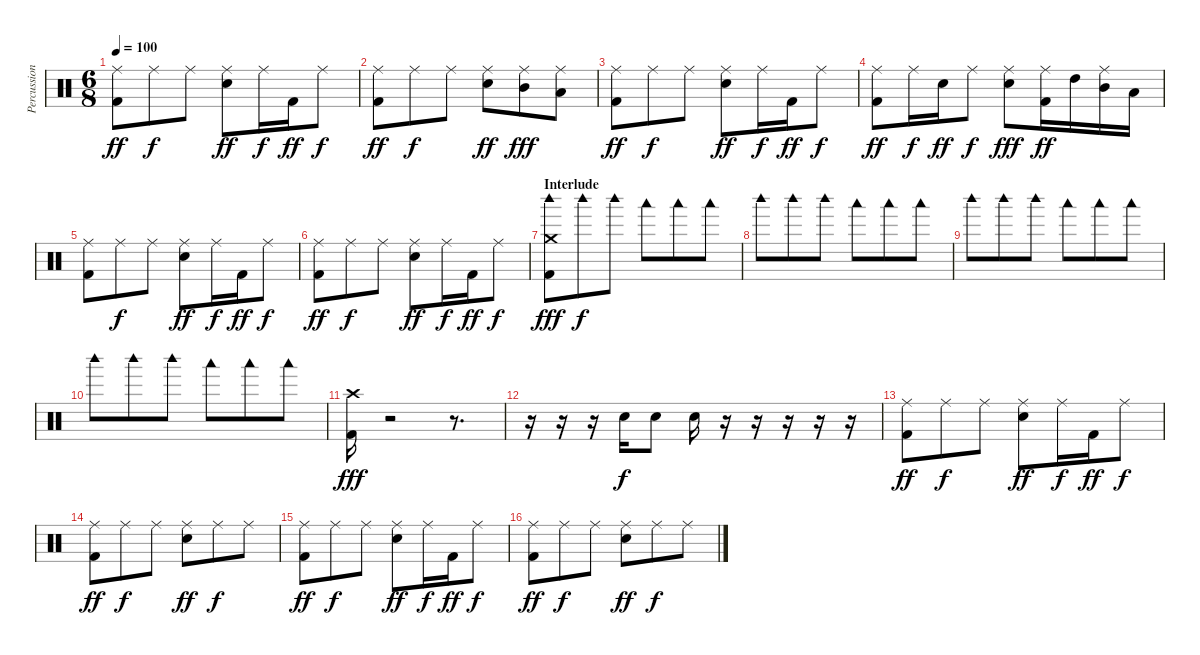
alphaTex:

\track ("Percussion" "Percussion") {instrument percussion}
\staff {score}
\articulation defaults
\ts (6 8)
\tempo 100
\clef neutral
\ks c
("Kick (hit) 2" "Ride (middle)").8{dy ff} "Ride (middle)".8{dy f} "Ride (middle)".8 ("Electric Snare (hit)" "Ride (middle)").8{dy ff} "Ride (middle)".16{dy f} "Kick (hit) 2".16{dy ff} "Ride (middle)".8{dy f} |
("Ride (middle)" "Kick (hit) 2").8{dy ff} "Ride (middle)".8{dy f} "Ride (middle)".8 ("Ride (middle)" "Electric Snare (hit)").8{dy ff} ("Mid Tom (hit)" "Ride (middle)").8{dy fff} ("Low Tom (hit)" "Ride (middle)").8 |
("Ride (middle)" "Kick (hit) 2").8{dy ff} "Ride (middle)".8{dy f} "Ride (middle)".8 ("Ride (middle)" "Electric Snare (hit)").8{dy ff} "Ride (middle)".16{dy f} "Kick (hit) 2".16{dy ff} "Ride (middle)".8{dy f} |
("Ride (middle)" "Kick (hit) 2").8{dy ff} "Ride (middle)".16{dy f} "Electric Snare (hit)".16{dy ff} "Ride (middle)".8{dy f} ("Ride (middle)" "Electric Snare (hit)").8{dy fff} ("Kick (hit) 2" "Ride (middle)").16{dy ff} "High Tom (hit)".16 ("Mid Tom (hit)" "Ride (middle)").16 "Low Tom (hit)".16 |
("Ride (middle)" "Kick (hit) 2").8 "Ride (middle)".8{dy f} "Ride (middle)".8 ("Ride (middle)" "Electric Snare (hit)").8{dy ff} "Ride (middle)".16{dy f} "Kick (hit) 2".16{dy ff} "Ride (middle)".8{dy f} |
("Ride (middle)" "Kick (hit) 2").8{dy ff} "Ride (middle)".8{dy f} "Ride (middle)".8 ("Ride (middle)" "Electric Snare (hit)").8{dy ff} "Ride (middle)".16{dy f} "Kick (hit) 2".16{dy ff} "Ride (middle)".8{dy f} |
\section ("" "Interlude")
("Kick (hit) 2" "Crash medium (hit)" "Woodblock high (hit)").8{dy fff} "Woodblock high (hit)".8{dy f} "Woodblock high (hit)".8 "Woodblock low (hit)".8 "Woodblock low (hit)".8 "Woodblock low (hit)".8 |
"Woodblock high (hit)".8 "Woodblock high (hit)".8 "Woodblock high (hit)".8 "Woodblock low (hit)".8 "Woodblock low (hit)".8 "Woodblock low (hit)".8 |
"Woodblock high (hit)".8 "Woodblock high (hit)".8 "Woodblock high (hit)".8 "Woodblock low (hit)".8 "Woodblock low (hit)".8 "Woodblock low (hit)".8 |
"Woodblock high (hit)".8 "Woodblock high (hit)".8 "Woodblock high (hit)".8 "Woodblock low (hit)".8 "Woodblock low (hit)".8 "Woodblock low (hit)".8 |
("Kick (hit) 2" "Crash high (hit)").16{dy fff} r.2 r.8{d} |
r.16 r.16 r.16 "Electric Snare (hit)".16{dy f} "Electric Snare (hit)".8 "Electric Snare (hit)".16 r.16 r.16 r.16 r.16 r.16 |
("Ride (middle)" "Kick (hit) 2").8{dy ff} "Ride (middle)".8{dy f} "Ride (middle)".8 ("Ride (middle)" "Electric Snare (hit)").8{dy ff} "Ride (middle)".16{dy f} "Kick (hit) 2".16{dy ff} "Ride (middle)".8{dy f} |
("Ride (middle)" "Kick (hit) 2").8{dy ff} "Ride (middle)".8{dy f} "Ride (middle)".8 ("Ride (middle)" "Electric Snare (hit)").8{dy ff} "Ride (middle)".8{dy f} "Ride (middle)".8 |
("Kick (hit) 2" "Ride (middle)").8{dy ff} "Ride (middle)".8{dy f} "Ride (middle)".8 ("Electric Snare (hit)" "Ride (middle)").8{dy ff} "Ride (middle)".16{dy f} "Kick (hit) 2".16{dy ff} "Ride (middle)".8{dy f} |
("Kick (hit) 2" "Ride (middle)").8{dy ff} "Ride (middle)".8{dy f} "Ride (middle)".8 ("Electric Snare (hit)" "Ride (middle)").8{dy ff} "Ride (middle)".8{dy f} "Ride (middle)".8
